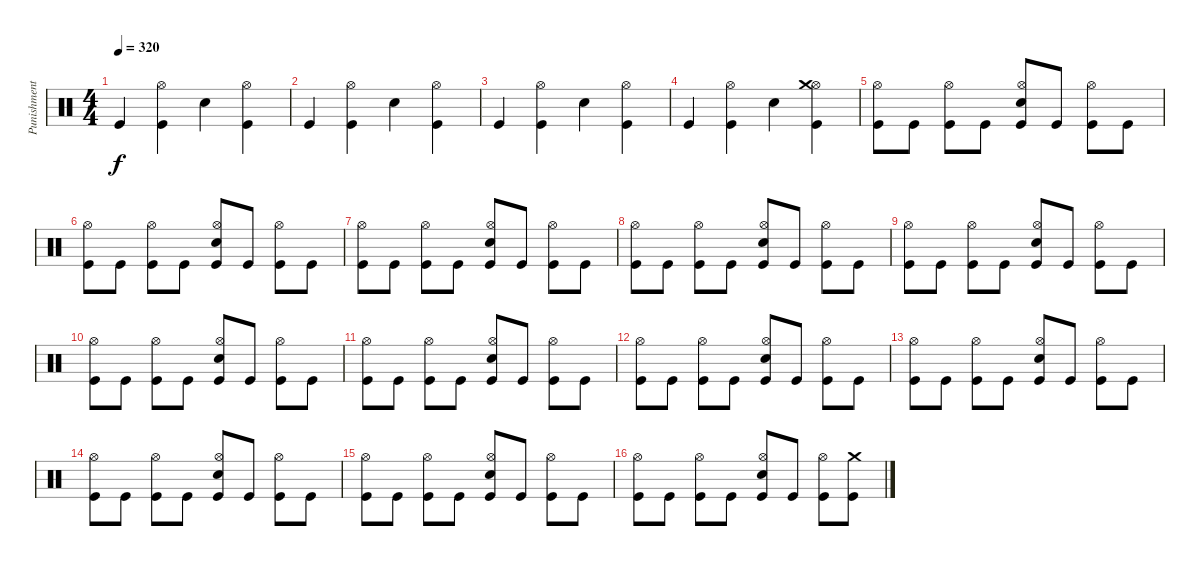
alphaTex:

\track ("Punishment" "Punishment") {instrument percussion}
\staff {score}
\articulation defaults
\ts (4 4)
\tempo 320
\clef neutral
\ks c "Kick (hit)".4{dy f}
("Kick (hit)" "Hi-Hat (open)").4 "Electric Snare (hit)".4 ("Kick (hit)" "Hi-Hat (open)").4 |
"Kick (hit)".4 ("Kick (hit)" "Hi-Hat (open)").4 "Electric Snare (hit)".4 ("Kick (hit)" "Hi-Hat (open)").4 |
"Kick (hit)".4 ("Kick (hit)" "Hi-Hat (open)").4 "Electric Snare (hit)".4 ("Kick (hit)" "Hi-Hat (open)").4 |
"Kick (hit)".4 ("Kick (hit)" "Hi-Hat (open)").4 "Electric Snare (hit)".4 ("Kick (hit)" "Hi-Hat (open)" "Crash medium (hit)").4 |
("Kick (hit)" "Hi-Hat (open)").8 "Kick (hit)".8 ("Kick (hit)" "Hi-Hat (open)").8 "Kick (hit)".8 ("Kick (hit)" "Electric Snare (hit)" "Hi-Hat (open)").8 "Kick (hit)".8 ("Kick (hit)" "Hi-Hat (open)").8 "Kick (hit)".8 |
("Kick (hit)" "Hi-Hat (open)").8 "Kick (hit)".8 ("Kick (hit)" "Hi-Hat (open)").8 "Kick (hit)".8 ("Kick (hit)" "Electric Snare (hit)" "Hi-Hat (open)").8 "Kick (hit)".8 ("Kick (hit)" "Hi-Hat (open)").8 "Kick (hit)".8 |
("Kick (hit)" "Hi-Hat (open)").8 "Kick (hit)".8 ("Kick (hit)" "Hi-Hat (open)").8 "Kick (hit)".8 ("Kick (hit)" "Electric Snare (hit)" "Hi-Hat (open)").8 "Kick (hit)".8 ("Kick (hit)" "Hi-Hat (open)").8 "Kick (hit)".8 |
("Kick (hit)" "Hi-Hat (open)").8 "Kick (hit)".8 ("Kick (hit)" "Hi-Hat (open)").8 "Kick (hit)".8 ("Kick (hit)" "Electric Snare (hit)" "Hi-Hat (open)").8 "Kick (hit)".8 ("Kick (hit)" "Hi-Hat (open)").8 "Kick (hit)".8 |
("Kick (hit)" "Hi-Hat (open)").8 "Kick (hit)".8 ("Kick (hit)" "Hi-Hat (open)").8 "Kick (hit)".8 ("Kick (hit)" "Electric Snare (hit)" "Hi-Hat (open)").8 "Kick (hit)".8 ("Kick (hit)" "Hi-Hat (open)").8 "Kick (hit)".8 |
("Kick (hit)" "Hi-Hat (open)").8 "Kick (hit)".8 ("Kick (hit)" "Hi-Hat (open)").8 "Kick (hit)".8 ("Kick (hit)" "Electric Snare (hit)" "Hi-Hat (open)").8 "Kick (hit)".8 ("Kick (hit)" "Hi-Hat (open)").8 "Kick (hit)".8 |
("Kick (hit)" "Hi-Hat (open)").8 "Kick (hit)".8 ("Kick (hit)" "Hi-Hat (open)").8 "Kick (hit)".8 ("Kick (hit)" "Electric Snare (hit)" "Hi-Hat (open)").8 "Kick (hit)".8 ("Kick (hit)" "Hi-Hat (open)").8 "Kick (hit)".8 |
("Kick (hit)" "Hi-Hat (open)").8 "Kick (hit)".8 ("Kick (hit)" "Hi-Hat (open)").8 "Kick (hit)".8 ("Kick (hit)" "Electric Snare (hit)" "Hi-Hat (open)").8 "Kick (hit)".8 ("Kick (hit)" "Hi-Hat (open)").8 "Kick (hit)".8 |
("Kick (hit)" "Hi-Hat (open)").8 "Kick (hit)".8 ("Kick (hit)" "Hi-Hat (open)").8 "Kick (hit)".8 ("Kick (hit)" "Electric Snare (hit)" "Hi-Hat (open)").8 "Kick (hit)".8 ("Kick (hit)" "Hi-Hat (open)").8 "Kick (hit)".8 |
("Kick (hit)" "Hi-Hat (open)").8 "Kick (hit)".8 ("Kick (hit)" "Hi-Hat (open)").8 "Kick (hit)".8 ("Kick (hit)" "Electric Snare (hit)" "Hi-Hat (open)").8 "Kick (hit)".8 ("Kick (hit)" "Hi-Hat (open)").8 "Kick (hit)".8 |
("Kick (hit)" "Hi-Hat (open)").8 "Kick (hit)".8 ("Kick (hit)" "Hi-Hat (open)").8 "Kick (hit)".8 ("Kick (hit)" "Electric Snare (hit)" "Hi-Hat (open)").8 "Kick (hit)".8 ("Kick (hit)" "Hi-Hat (open)").8 "Kick (hit)".8 |
("Kick (hit)" "Hi-Hat (open)").8 "Kick (hit)".8 ("Kick (hit)" "Hi-Hat (open)").8 "Kick (hit)".8 ("Kick (hit)" "Electric Snare (hit)" "Hi-Hat (open)").8 "Kick (hit)".8 ("Kick (hit)" "Hi-Hat (open)").8 ("Kick (hit)" "Crash medium (hit)").8
